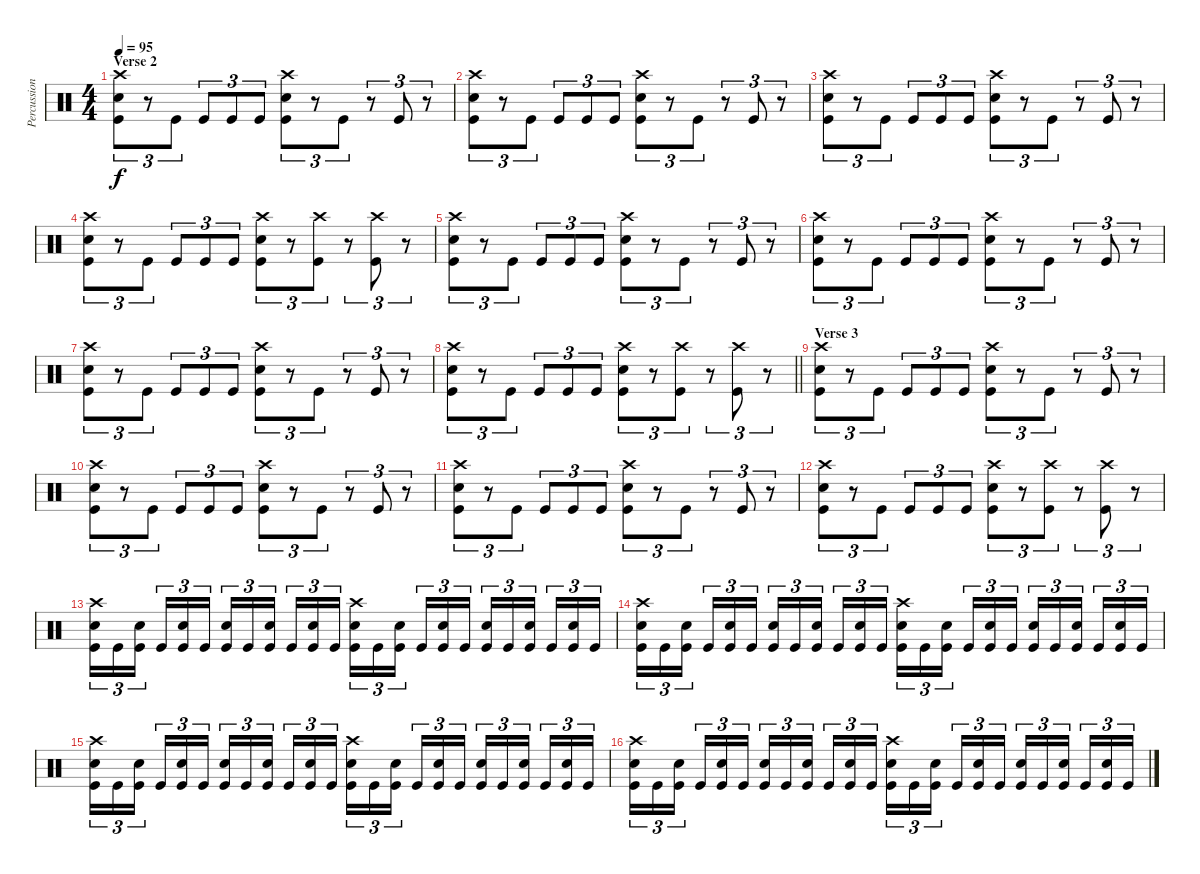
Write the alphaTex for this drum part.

\track ("Percussion" "Percussion") {instrument percussion}
\staff {score}
\articulation defaults
\ts (4 4)
\section ("" "Verse 2")
\tempo 95
\clef neutral
\ks c
("Crash high (hit)" "Snare (hit) 2" "Kick (hit)").8{tu (3 2) dy f} r.8{tu (3 2)} "Kick (hit)".8{tu (3 2)} "Kick (hit)".8{tu (3 2)} "Kick (hit)".8{tu (3 2)} "Kick (hit)".8{tu (3 2)} ("Crash high (hit)" "Snare (hit) 2" "Kick (hit)").8{tu (3 2)} r.8{tu (3 2)} "Kick (hit)".8{tu (3 2)} r.8{tu (3 2)} "Kick (hit)".8{tu (3 2)} r.8{tu (3 2)} |
("Crash high (hit)" "Snare (hit) 2" "Kick (hit)").8{tu (3 2)} r.8{tu (3 2)} "Kick (hit)".8{tu (3 2)} "Kick (hit)".8{tu (3 2)} "Kick (hit)".8{tu (3 2)} "Kick (hit)".8{tu (3 2)} ("Crash high (hit)" "Snare (hit) 2" "Kick (hit)").8{tu (3 2)} r.8{tu (3 2)} "Kick (hit)".8{tu (3 2)} r.8{tu (3 2)} "Kick (hit)".8{tu (3 2)} r.8{tu (3 2)} |
("Crash high (hit)" "Snare (hit) 2" "Kick (hit)").8{tu (3 2)} r.8{tu (3 2)} "Kick (hit)".8{tu (3 2)} "Kick (hit)".8{tu (3 2)} "Kick (hit)".8{tu (3 2)} "Kick (hit)".8{tu (3 2)} ("Crash high (hit)" "Snare (hit) 2" "Kick (hit)").8{tu (3 2)} r.8{tu (3 2)} "Kick (hit)".8{tu (3 2)} r.8{tu (3 2)} "Kick (hit)".8{tu (3 2)} r.8{tu (3 2)} |
("Crash high (hit)" "Snare (hit) 2" "Kick (hit)").8{tu (3 2)} r.8{tu (3 2)} "Kick (hit)".8{tu (3 2)} "Kick (hit)".8{tu (3 2)} "Kick (hit)".8{tu (3 2)} "Kick (hit)".8{tu (3 2)} ("Crash high (hit)" "Snare (hit) 2" "Kick (hit)").8{tu (3 2)} r.8{tu (3 2)} ("Crash high (hit)" "Kick (hit)").8{tu (3 2)} r.8{tu (3 2)} ("Crash high (hit)" "Kick (hit)").8{tu (3 2)} r.8{tu (3 2)} |
("Crash high (hit)" "Snare (hit) 2" "Kick (hit)").8{tu (3 2)} r.8{tu (3 2)} "Kick (hit)".8{tu (3 2)} "Kick (hit)".8{tu (3 2)} "Kick (hit)".8{tu (3 2)} "Kick (hit)".8{tu (3 2)} ("Crash high (hit)" "Snare (hit) 2" "Kick (hit)").8{tu (3 2)} r.8{tu (3 2)} "Kick (hit)".8{tu (3 2)} r.8{tu (3 2)} "Kick (hit)".8{tu (3 2)} r.8{tu (3 2)} |
("Crash high (hit)" "Snare (hit) 2" "Kick (hit)").8{tu (3 2)} r.8{tu (3 2)} "Kick (hit)".8{tu (3 2)} "Kick (hit)".8{tu (3 2)} "Kick (hit)".8{tu (3 2)} "Kick (hit)".8{tu (3 2)} ("Crash high (hit)" "Snare (hit) 2" "Kick (hit)").8{tu (3 2)} r.8{tu (3 2)} "Kick (hit)".8{tu (3 2)} r.8{tu (3 2)} "Kick (hit)".8{tu (3 2)} r.8{tu (3 2)} |
("Crash high (hit)" "Snare (hit) 2" "Kick (hit)").8{tu (3 2)} r.8{tu (3 2)} "Kick (hit)".8{tu (3 2)} "Kick (hit)".8{tu (3 2)} "Kick (hit)".8{tu (3 2)} "Kick (hit)".8{tu (3 2)} ("Crash high (hit)" "Snare (hit) 2" "Kick (hit)").8{tu (3 2)} r.8{tu (3 2)} "Kick (hit)".8{tu (3 2)} r.8{tu (3 2)} "Kick (hit)".8{tu (3 2)} r.8{tu (3 2)} |
\barLineRight lightlight
("Crash high (hit)" "Snare (hit) 2" "Kick (hit)").8{tu (3 2)} r.8{tu (3 2)} "Kick (hit)".8{tu (3 2)} "Kick (hit)".8{tu (3 2)} "Kick (hit)".8{tu (3 2)} "Kick (hit)".8{tu (3 2)} ("Crash high (hit)" "Snare (hit) 2" "Kick (hit)").8{tu (3 2)} r.8{tu (3 2)} ("Crash high (hit)" "Kick (hit)").8{tu (3 2)} r.8{tu (3 2)} ("Crash high (hit)" "Kick (hit)").8{tu (3 2)} r.8{tu (3 2)} |
\section ("" "Verse 3")
("Crash high (hit)" "Snare (hit) 2" "Kick (hit)").8{tu (3 2)} r.8{tu (3 2)} "Kick (hit)".8{tu (3 2)} "Kick (hit)".8{tu (3 2)} "Kick (hit)".8{tu (3 2)} "Kick (hit)".8{tu (3 2)} ("Crash high (hit)" "Snare (hit) 2" "Kick (hit)").8{tu (3 2)} r.8{tu (3 2)} "Kick (hit)".8{tu (3 2)} r.8{tu (3 2)} "Kick (hit)".8{tu (3 2)} r.8{tu (3 2)} |
("Crash high (hit)" "Snare (hit) 2" "Kick (hit)").8{tu (3 2)} r.8{tu (3 2)} "Kick (hit)".8{tu (3 2)} "Kick (hit)".8{tu (3 2)} "Kick (hit)".8{tu (3 2)} "Kick (hit)".8{tu (3 2)} ("Crash high (hit)" "Snare (hit) 2" "Kick (hit)").8{tu (3 2)} r.8{tu (3 2)} "Kick (hit)".8{tu (3 2)} r.8{tu (3 2)} "Kick (hit)".8{tu (3 2)} r.8{tu (3 2)} |
("Crash high (hit)" "Snare (hit) 2" "Kick (hit)").8{tu (3 2)} r.8{tu (3 2)} "Kick (hit)".8{tu (3 2)} "Kick (hit)".8{tu (3 2)} "Kick (hit)".8{tu (3 2)} "Kick (hit)".8{tu (3 2)} ("Crash high (hit)" "Snare (hit) 2" "Kick (hit)").8{tu (3 2)} r.8{tu (3 2)} "Kick (hit)".8{tu (3 2)} r.8{tu (3 2)} "Kick (hit)".8{tu (3 2)} r.8{tu (3 2)} |
("Crash high (hit)" "Snare (hit) 2" "Kick (hit)").8{tu (3 2)} r.8{tu (3 2)} "Kick (hit)".8{tu (3 2)} "Kick (hit)".8{tu (3 2)} "Kick (hit)".8{tu (3 2)} "Kick (hit)".8{tu (3 2)} ("Crash high (hit)" "Snare (hit) 2" "Kick (hit)").8{tu (3 2)} r.8{tu (3 2)} ("Crash high (hit)" "Kick (hit)").8{tu (3 2)} r.8{tu (3 2)} ("Crash high (hit)" "Kick (hit)").8{tu (3 2)} r.8{tu (3 2)} |
("Crash high (hit)" "Snare (hit) 2" "Kick (hit)").16{tu (3 2)} "Kick (hit)".16{tu (3 2)} ("Snare (hit) 2" "Kick (hit)").16{tu (3 2) beam splitsecondary} "Kick (hit)".16{tu (3 2)} ("Snare (hit) 2" "Kick (hit)").16{tu (3 2)} "Kick (hit)".16{tu (3 2)} ("Snare (hit) 2" "Kick (hit)").16{tu (3 2)} "Kick (hit)".16{tu (3 2)} ("Snare (hit) 2" "Kick (hit)").16{tu (3 2) beam splitsecondary} "Kick (hit)".16{tu (3 2)} ("Snare (hit) 2" "Kick (hit)").16{tu (3 2)} "Kick (hit)".16{tu (3 2)} ("Crash high (hit)" "Snare (hit) 2" "Kick (hit)").16{tu (3 2)} "Kick (hit)".16{tu (3 2)} ("Snare (hit) 2" "Kick (hit)").16{tu (3 2) beam splitsecondary} "Kick (hit)".16{tu (3 2)} ("Snare (hit) 2" "Kick (hit)").16{tu (3 2)} "Kick (hit)".16{tu (3 2)} ("Snare (hit) 2" "Kick (hit)").16{tu (3 2)} "Kick (hit)".16{tu (3 2)} ("Snare (hit) 2" "Kick (hit)").16{tu (3 2) beam splitsecondary} "Kick (hit)".16{tu (3 2)} ("Snare (hit) 2" "Kick (hit)").16{tu (3 2)} "Kick (hit)".16{tu (3 2)} |
("Crash high (hit)" "Snare (hit) 2" "Kick (hit)").16{tu (3 2)} "Kick (hit)".16{tu (3 2)} ("Snare (hit) 2" "Kick (hit)").16{tu (3 2) beam splitsecondary} "Kick (hit)".16{tu (3 2)} ("Snare (hit) 2" "Kick (hit)").16{tu (3 2)} "Kick (hit)".16{tu (3 2)} ("Snare (hit) 2" "Kick (hit)").16{tu (3 2)} "Kick (hit)".16{tu (3 2)} ("Snare (hit) 2" "Kick (hit)").16{tu (3 2) beam splitsecondary} "Kick (hit)".16{tu (3 2)} ("Snare (hit) 2" "Kick (hit)").16{tu (3 2)} "Kick (hit)".16{tu (3 2)} ("Crash high (hit)" "Snare (hit) 2" "Kick (hit)").16{tu (3 2)} "Kick (hit)".16{tu (3 2)} ("Snare (hit) 2" "Kick (hit)").16{tu (3 2) beam splitsecondary} "Kick (hit)".16{tu (3 2)} ("Snare (hit) 2" "Kick (hit)").16{tu (3 2)} "Kick (hit)".16{tu (3 2)} ("Snare (hit) 2" "Kick (hit)").16{tu (3 2)} "Kick (hit)".16{tu (3 2)} ("Snare (hit) 2" "Kick (hit)").16{tu (3 2) beam splitsecondary} "Kick (hit)".16{tu (3 2)} ("Snare (hit) 2" "Kick (hit)").16{tu (3 2)} "Kick (hit)".16{tu (3 2)} |
("Crash high (hit)" "Snare (hit) 2" "Kick (hit)").16{tu (3 2)} "Kick (hit)".16{tu (3 2)} ("Snare (hit) 2" "Kick (hit)").16{tu (3 2) beam splitsecondary} "Kick (hit)".16{tu (3 2)} ("Snare (hit) 2" "Kick (hit)").16{tu (3 2)} "Kick (hit)".16{tu (3 2)} ("Snare (hit) 2" "Kick (hit)").16{tu (3 2)} "Kick (hit)".16{tu (3 2)} ("Snare (hit) 2" "Kick (hit)").16{tu (3 2) beam splitsecondary} "Kick (hit)".16{tu (3 2)} ("Snare (hit) 2" "Kick (hit)").16{tu (3 2)} "Kick (hit)".16{tu (3 2)} ("Crash high (hit)" "Snare (hit) 2" "Kick (hit)").16{tu (3 2)} "Kick (hit)".16{tu (3 2)} ("Snare (hit) 2" "Kick (hit)").16{tu (3 2) beam splitsecondary} "Kick (hit)".16{tu (3 2)} ("Snare (hit) 2" "Kick (hit)").16{tu (3 2)} "Kick (hit)".16{tu (3 2)} ("Snare (hit) 2" "Kick (hit)").16{tu (3 2)} "Kick (hit)".16{tu (3 2)} ("Snare (hit) 2" "Kick (hit)").16{tu (3 2) beam splitsecondary} "Kick (hit)".16{tu (3 2)} ("Snare (hit) 2" "Kick (hit)").16{tu (3 2)} "Kick (hit)".16{tu (3 2)} |
("Crash high (hit)" "Snare (hit) 2" "Kick (hit)").16{tu (3 2)} "Kick (hit)".16{tu (3 2)} ("Snare (hit) 2" "Kick (hit)").16{tu (3 2) beam splitsecondary} "Kick (hit)".16{tu (3 2)} ("Snare (hit) 2" "Kick (hit)").16{tu (3 2)} "Kick (hit)".16{tu (3 2)} ("Snare (hit) 2" "Kick (hit)").16{tu (3 2)} "Kick (hit)".16{tu (3 2)} ("Snare (hit) 2" "Kick (hit)").16{tu (3 2) beam splitsecondary} "Kick (hit)".16{tu (3 2)} ("Snare (hit) 2" "Kick (hit)").16{tu (3 2)} "Kick (hit)".16{tu (3 2)} ("Crash high (hit)" "Snare (hit) 2" "Kick (hit)").16{tu (3 2)} "Kick (hit)".16{tu (3 2)} ("Snare (hit) 2" "Kick (hit)").16{tu (3 2) beam splitsecondary} "Kick (hit)".16{tu (3 2)} ("Snare (hit) 2" "Kick (hit)").16{tu (3 2)} "Kick (hit)".16{tu (3 2)} ("Snare (hit) 2" "Kick (hit)").16{tu (3 2)} "Kick (hit)".16{tu (3 2)} ("Snare (hit) 2" "Kick (hit)").16{tu (3 2) beam splitsecondary} "Kick (hit)".16{tu (3 2)} ("Snare (hit) 2" "Kick (hit)").16{tu (3 2)} "Kick (hit)".16{tu (3 2)}
